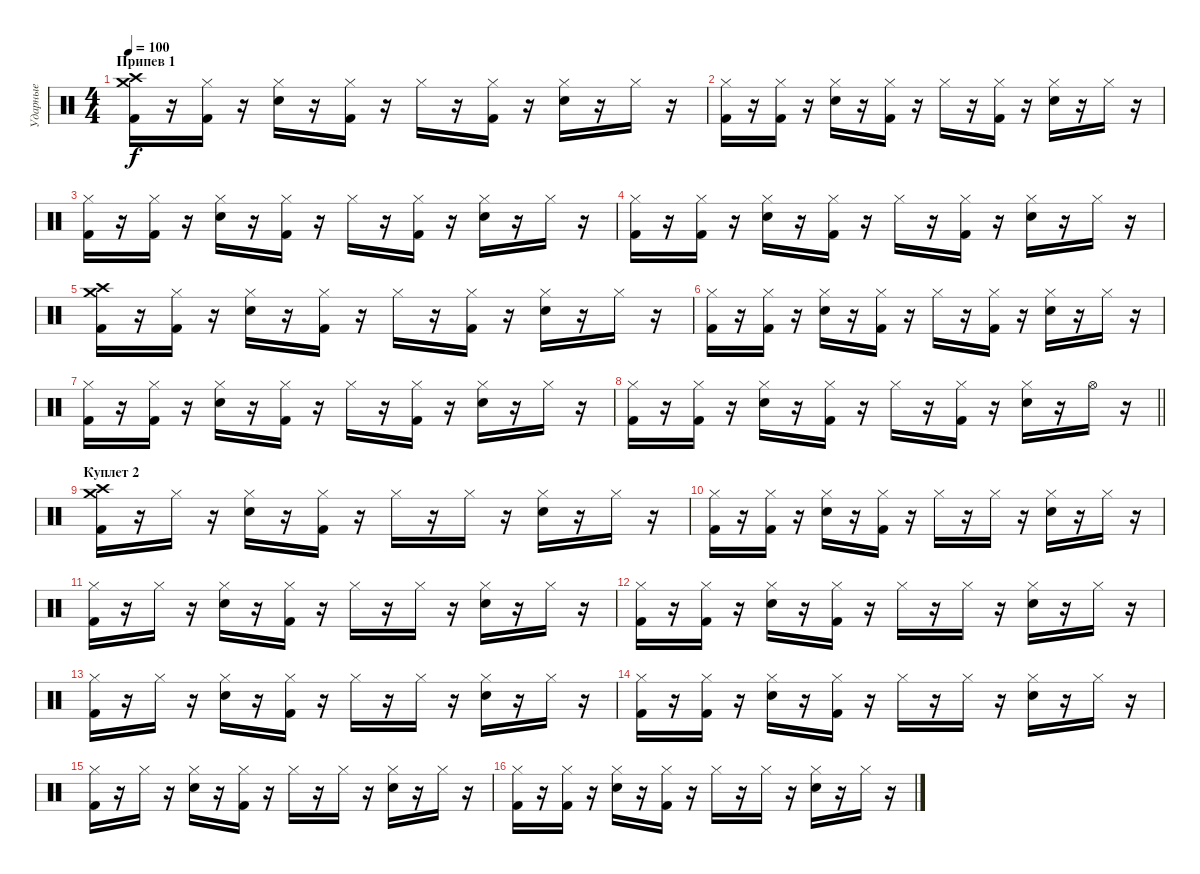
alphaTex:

\track ("Ударные" "Ударные") {instrument percussion}
\staff {score}
\articulation defaults
\ts (4 4)
\section ("" "Припев 1")
\tempo 100
\clef neutral
\ks c
("Crash high (hit)" "Crash medium (hit)" "Kick (hit) 2").16{dy f} r.16 ("Hi-Hat (closed)" "Kick (hit) 2").16 r.16 ("Hi-Hat (closed)" "Electric Snare (hit)").16 r.16 ("Hi-Hat (closed)" "Kick (hit) 2").16 r.16 "Hi-Hat (closed)".16 r.16 ("Hi-Hat (closed)" "Kick (hit) 2").16 r.16 ("Hi-Hat (closed)" "Electric Snare (hit)").16 r.16 "Hi-Hat (closed)".16 r.16 |
("Hi-Hat (closed)" "Kick (hit) 2").16 r.16 ("Hi-Hat (closed)" "Kick (hit) 2").16 r.16 ("Hi-Hat (closed)" "Electric Snare (hit)").16 r.16 ("Hi-Hat (closed)" "Kick (hit) 2").16 r.16 "Hi-Hat (closed)".16 r.16 ("Hi-Hat (closed)" "Kick (hit) 2").16 r.16 ("Hi-Hat (closed)" "Electric Snare (hit)").16 r.16 "Hi-Hat (closed)".16 r.16 |
("Hi-Hat (closed)" "Kick (hit) 2").16 r.16 ("Hi-Hat (closed)" "Kick (hit) 2").16 r.16 ("Hi-Hat (closed)" "Electric Snare (hit)").16 r.16 ("Hi-Hat (closed)" "Kick (hit) 2").16 r.16 "Hi-Hat (closed)".16 r.16 ("Hi-Hat (closed)" "Kick (hit) 2").16 r.16 ("Hi-Hat (closed)" "Electric Snare (hit)").16 r.16 "Hi-Hat (closed)".16 r.16 |
("Hi-Hat (closed)" "Kick (hit) 2").16 r.16 ("Hi-Hat (closed)" "Kick (hit) 2").16 r.16 ("Hi-Hat (closed)" "Electric Snare (hit)").16 r.16 ("Hi-Hat (closed)" "Kick (hit) 2").16 r.16 "Hi-Hat (closed)".16 r.16 ("Hi-Hat (closed)" "Kick (hit) 2").16 r.16 ("Hi-Hat (closed)" "Electric Snare (hit)").16 r.16 "Hi-Hat (closed)".16 r.16 |
("Crash high (hit)" "Crash medium (hit)" "Kick (hit) 2").16 r.16 ("Hi-Hat (closed)" "Kick (hit) 2").16 r.16 ("Hi-Hat (closed)" "Electric Snare (hit)").16 r.16 ("Hi-Hat (closed)" "Kick (hit) 2").16 r.16 "Hi-Hat (closed)".16 r.16 ("Hi-Hat (closed)" "Kick (hit) 2").16 r.16 ("Hi-Hat (closed)" "Electric Snare (hit)").16 r.16 "Hi-Hat (closed)".16 r.16 |
("Hi-Hat (closed)" "Kick (hit) 2").16 r.16 ("Hi-Hat (closed)" "Kick (hit) 2").16 r.16 ("Hi-Hat (closed)" "Electric Snare (hit)").16 r.16 ("Hi-Hat (closed)" "Kick (hit) 2").16 r.16 "Hi-Hat (closed)".16 r.16 ("Hi-Hat (closed)" "Kick (hit) 2").16 r.16 ("Hi-Hat (closed)" "Electric Snare (hit)").16 r.16 "Hi-Hat (closed)".16 r.16 |
("Hi-Hat (closed)" "Kick (hit) 2").16 r.16 ("Hi-Hat (closed)" "Kick (hit) 2").16 r.16 ("Hi-Hat (closed)" "Electric Snare (hit)").16 r.16 ("Hi-Hat (closed)" "Kick (hit) 2").16 r.16 "Hi-Hat (closed)".16 r.16 ("Hi-Hat (closed)" "Kick (hit) 2").16 r.16 ("Hi-Hat (closed)" "Electric Snare (hit)").16 r.16 "Hi-Hat (closed)".16 r.16 |
\barLineRight lightlight
("Hi-Hat (closed)" "Kick (hit) 2").16 r.16 ("Hi-Hat (closed)" "Kick (hit) 2").16 r.16 ("Hi-Hat (closed)" "Electric Snare (hit)").16 r.16 ("Hi-Hat (closed)" "Kick (hit) 2").16 r.16 "Hi-Hat (closed)".16 r.16 ("Hi-Hat (closed)" "Kick (hit) 2").16 r.16 ("Hi-Hat (closed)" "Electric Snare (hit)").16 r.16 "Hi-Hat (open)".16 r.16 |
\section ("" "Куплет 2")
("Crash high (hit)" "Crash medium (hit)" "Kick (hit) 2").16 r.16 "Hi-Hat (closed)".16 r.16 ("Hi-Hat (closed)" "Electric Snare (hit)").16 r.16 ("Hi-Hat (closed)" "Kick (hit) 2").16 r.16 "Hi-Hat (closed)".16 r.16 "Hi-Hat (closed)".16 r.16 ("Hi-Hat (closed)" "Electric Snare (hit)").16 r.16 "Hi-Hat (closed)".16 r.16 |
("Hi-Hat (closed)" "Kick (hit) 2").16 r.16 ("Hi-Hat (closed)" "Kick (hit) 2").16 r.16 ("Hi-Hat (closed)" "Electric Snare (hit)").16 r.16 ("Hi-Hat (closed)" "Kick (hit) 2").16 r.16 "Hi-Hat (closed)".16 r.16 "Hi-Hat (closed)".16 r.16 ("Hi-Hat (closed)" "Electric Snare (hit)").16 r.16 "Hi-Hat (closed)".16 r.16 |
("Hi-Hat (closed)" "Kick (hit) 2").16 r.16 "Hi-Hat (closed)".16 r.16 ("Hi-Hat (closed)" "Electric Snare (hit)").16 r.16 ("Hi-Hat (closed)" "Kick (hit) 2").16 r.16 "Hi-Hat (closed)".16 r.16 "Hi-Hat (closed)".16 r.16 ("Hi-Hat (closed)" "Electric Snare (hit)").16 r.16 "Hi-Hat (closed)".16 r.16 |
("Hi-Hat (closed)" "Kick (hit) 2").16 r.16 ("Hi-Hat (closed)" "Kick (hit) 2").16 r.16 ("Hi-Hat (closed)" "Electric Snare (hit)").16 r.16 ("Hi-Hat (closed)" "Kick (hit) 2").16 r.16 "Hi-Hat (closed)".16 r.16 "Hi-Hat (closed)".16 r.16 ("Hi-Hat (closed)" "Electric Snare (hit)").16 r.16 "Hi-Hat (closed)".16 r.16 |
("Hi-Hat (closed)" "Kick (hit) 2").16 r.16 "Hi-Hat (closed)".16 r.16 ("Hi-Hat (closed)" "Electric Snare (hit)").16 r.16 ("Hi-Hat (closed)" "Kick (hit) 2").16 r.16 "Hi-Hat (closed)".16 r.16 "Hi-Hat (closed)".16 r.16 ("Hi-Hat (closed)" "Electric Snare (hit)").16 r.16 "Hi-Hat (closed)".16 r.16 |
("Hi-Hat (closed)" "Kick (hit) 2").16 r.16 ("Hi-Hat (closed)" "Kick (hit) 2").16 r.16 ("Hi-Hat (closed)" "Electric Snare (hit)").16 r.16 ("Hi-Hat (closed)" "Kick (hit) 2").16 r.16 "Hi-Hat (closed)".16 r.16 "Hi-Hat (closed)".16 r.16 ("Hi-Hat (closed)" "Electric Snare (hit)").16 r.16 "Hi-Hat (closed)".16 r.16 |
("Hi-Hat (closed)" "Kick (hit) 2").16 r.16 "Hi-Hat (closed)".16 r.16 ("Hi-Hat (closed)" "Electric Snare (hit)").16 r.16 ("Hi-Hat (closed)" "Kick (hit) 2").16 r.16 "Hi-Hat (closed)".16 r.16 "Hi-Hat (closed)".16 r.16 ("Hi-Hat (closed)" "Electric Snare (hit)").16 r.16 "Hi-Hat (closed)".16 r.16 |
("Hi-Hat (closed)" "Kick (hit) 2").16 r.16 ("Hi-Hat (closed)" "Kick (hit) 2").16 r.16 ("Hi-Hat (closed)" "Electric Snare (hit)").16 r.16 ("Hi-Hat (closed)" "Kick (hit) 2").16 r.16 "Hi-Hat (closed)".16 r.16 "Hi-Hat (closed)".16 r.16 ("Hi-Hat (closed)" "Electric Snare (hit)").16 r.16 "Hi-Hat (closed)".16 r.16
